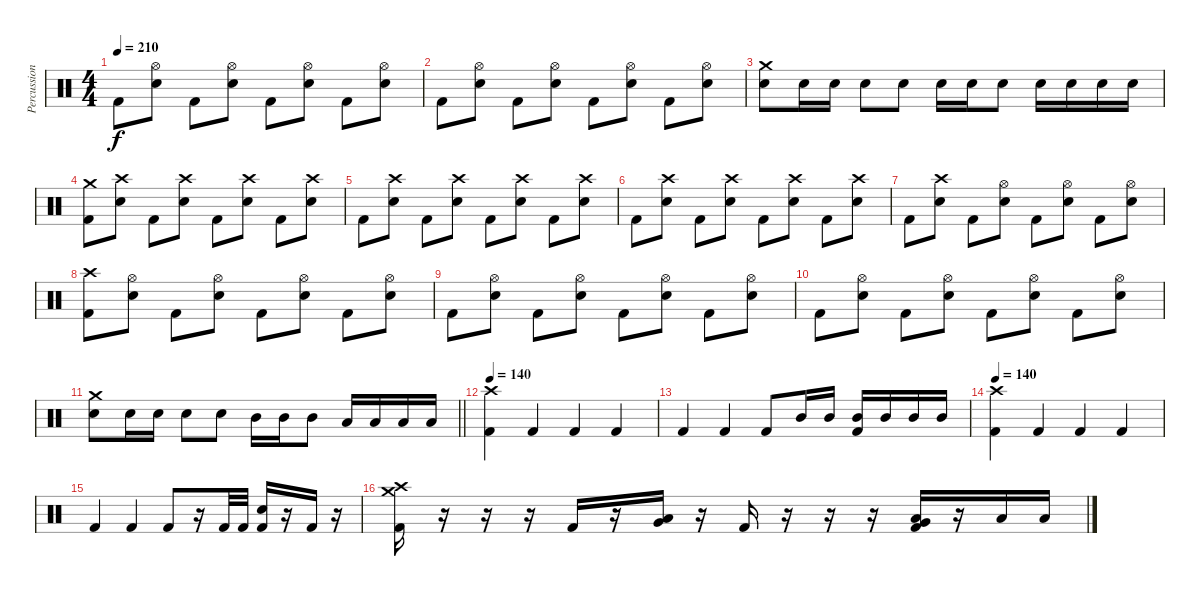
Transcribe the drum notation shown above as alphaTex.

\track ("Percussion" "Percussion") {instrument percussion}
\staff {score}
\articulation defaults
\ts (4 4)
\tempo 210
\clef neutral
\ks c "Kick (hit) 2".8{dy f}
("Hi-Hat (open)" "Snare (hit) 2").8 "Kick (hit) 2".8 ("Hi-Hat (open)" "Snare (hit) 2").8 "Kick (hit) 2".8 ("Hi-Hat (open)" "Snare (hit) 2").8 "Kick (hit) 2".8 ("Hi-Hat (open)" "Snare (hit) 2").8 |
"Kick (hit) 2".8 ("Hi-Hat (open)" "Snare (hit) 2").8 "Kick (hit) 2".8 ("Hi-Hat (open)" "Snare (hit) 2").8 "Kick (hit) 2".8 ("Hi-Hat (open)" "Snare (hit) 2").8 "Kick (hit) 2".8 ("Hi-Hat (open)" "Snare (hit) 2").8 |
("Crash medium (hit)" "Snare (hit) 2").8 "Snare (hit) 2".16 "Snare (hit) 2".16 "Snare (hit) 2".8 "Snare (hit) 2".8 "Snare (hit) 2".16 "Snare (hit) 2".16 "Snare (hit) 2".8 "Snare (hit) 2".16 "Snare (hit) 2".16 "Snare (hit) 2".16 "Snare (hit) 2".16 |
("Crash medium (hit)" "Kick (hit) 2").8 ("Crash high (hit)" "Snare (hit) 2").8 "Kick (hit) 2".8 ("Crash high (hit)" "Snare (hit) 2").8 "Kick (hit) 2".8 ("Crash high (hit)" "Snare (hit) 2").8 "Kick (hit) 2".8 ("Crash high (hit)" "Snare (hit) 2").8 |
"Kick (hit) 2".8 ("Crash high (hit)" "Snare (hit) 2").8 "Kick (hit) 2".8 ("Crash high (hit)" "Snare (hit) 2").8 "Kick (hit) 2".8 ("Crash high (hit)" "Snare (hit) 2").8 "Kick (hit) 2".8 ("Crash high (hit)" "Snare (hit) 2").8 |
"Kick (hit) 2".8 ("Crash high (hit)" "Snare (hit) 2").8 "Kick (hit) 2".8 ("Crash high (hit)" "Snare (hit) 2").8 "Kick (hit) 2".8 ("Crash high (hit)" "Snare (hit) 2").8 "Kick (hit) 2".8 ("Crash high (hit)" "Snare (hit) 2").8 |
"Kick (hit) 2".8 ("Crash high (hit)" "Snare (hit) 2").8 "Kick (hit) 2".8 ("Hi-Hat (open)" "Snare (hit) 2").8 "Kick (hit) 2".8 ("Hi-Hat (open)" "Snare (hit) 2").8 "Kick (hit) 2".8 ("Hi-Hat (open)" "Snare (hit) 2").8 |
("Crash high (hit)" "Kick (hit) 2").8 ("Hi-Hat (open)" "Snare (hit) 2").8 "Kick (hit) 2".8 ("Hi-Hat (open)" "Snare (hit) 2").8 "Kick (hit) 2".8 ("Hi-Hat (open)" "Snare (hit) 2").8 "Kick (hit) 2".8 ("Hi-Hat (open)" "Snare (hit) 2").8 |
"Kick (hit) 2".8 ("Hi-Hat (open)" "Snare (hit) 2").8 "Kick (hit) 2".8 ("Hi-Hat (open)" "Snare (hit) 2").8 "Kick (hit) 2".8 ("Hi-Hat (open)" "Snare (hit) 2").8 "Kick (hit) 2".8 ("Hi-Hat (open)" "Snare (hit) 2").8 |
"Kick (hit) 2".8 ("Hi-Hat (open)" "Snare (hit) 2").8 "Kick (hit) 2".8 ("Hi-Hat (open)" "Snare (hit) 2").8 "Kick (hit) 2".8 ("Hi-Hat (open)" "Snare (hit) 2").8 "Kick (hit) 2".8 ("Hi-Hat (open)" "Snare (hit) 2").8 |
\barLineRight lightlight
("Crash medium (hit)" "Snare (hit) 2").8 "Snare (hit) 2".16 "Snare (hit) 2".16 "Snare (hit) 2".8 "Snare (hit) 2".8 "Mid Tom (hit)".16 "Mid Tom (hit)".16 "Mid Tom (hit)".8 "Low Tom (hit)".16 "Low Tom (hit)".16 "Low Tom (hit)".16 "Low Tom (hit)".16 |
\tempo 140
("Crash high (hit)" "Kick (hit) 2").4 "Kick (hit) 2".4 "Kick (hit) 2".4 "Kick (hit) 2".4 |
"Kick (hit) 2".4 "Kick (hit) 2".4 "Kick (hit) 2".8 "Mid Tom (hit)".16 "Mid Tom (hit)".16 ("Mid Tom (hit)" "Kick (hit) 2").16 "Mid Tom (hit)".16 "Mid Tom (hit)".16 "Mid Tom (hit)".16 |
\tempo 140
("Crash high (hit)" "Kick (hit) 2").4 "Kick (hit) 2".4 "Kick (hit) 2".4 "Kick (hit) 2".4 |
"Kick (hit) 2".4 "Kick (hit) 2".4 "Kick (hit) 2".8 r.16 "Kick (hit) 2".32 "Kick (hit) 2".32 ("Snare (hit) 2" "Kick (hit) 2").16 r.16 "Kick (hit) 2".16 r.16 |
("Crash high (hit)" "Crash medium (hit)" "Kick (hit) 2").16 r.16 r.16 r.16 "Kick (hit) 2".16 r.16 ("Low Tom (hit)" "Very Low Tom (hit)").16 r.16 "Kick (hit) 2".16 r.16 r.16 r.16 ("Low Tom (hit)" "Very Low Tom (hit)" "Kick (hit) 2").16 r.16 "Low Tom (hit)".16 "Low Tom (hit)".16
